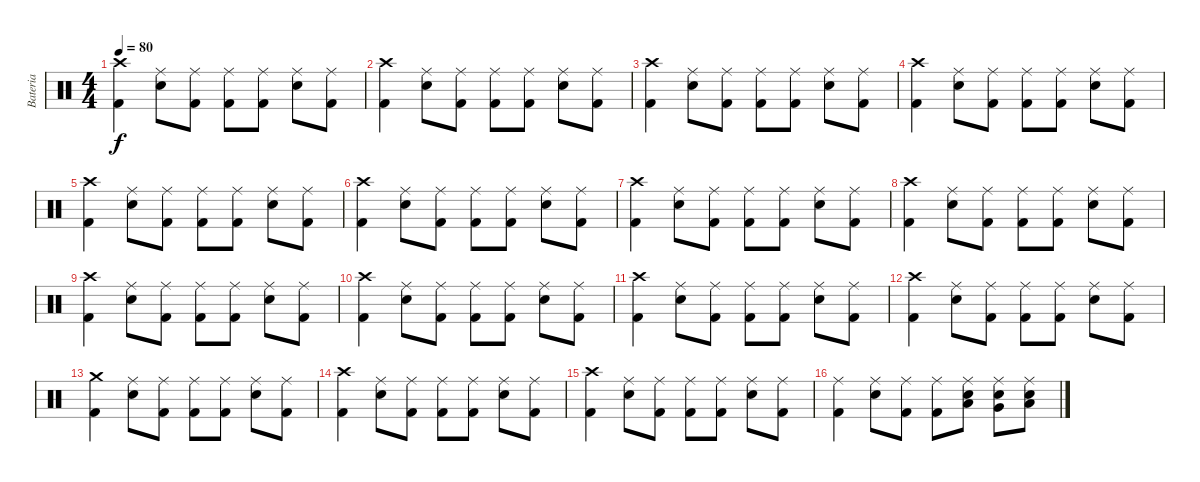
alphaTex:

\track ("Bateria" "Bateria") {instrument percussion}
\staff {score}
\articulation defaults
\ts (4 4)
\tempo 80
\clef neutral
\ks c
("Crash high (hit)" "Kick (hit) 2").4{dy f} ("Ride (middle)" "Snare (hit) 2").8 ("Ride (middle)" "Kick (hit) 2").8 ("Ride (middle)" "Kick (hit) 2").8 ("Ride (middle)" "Kick (hit) 2").8 ("Ride (middle)" "Snare (hit) 2").8 ("Ride (middle)" "Kick (hit) 2").8 |
("Crash high (hit)" "Kick (hit) 2").4 ("Ride (middle)" "Snare (hit) 2").8 ("Ride (middle)" "Kick (hit) 2").8 ("Ride (middle)" "Kick (hit) 2").8 ("Ride (middle)" "Kick (hit) 2").8 ("Ride (middle)" "Snare (hit) 2").8 ("Ride (middle)" "Kick (hit) 2").8 |
("Crash high (hit)" "Kick (hit) 2").4 ("Ride (middle)" "Snare (hit) 2").8 ("Ride (middle)" "Kick (hit) 2").8 ("Ride (middle)" "Kick (hit) 2").8 ("Ride (middle)" "Kick (hit) 2").8 ("Ride (middle)" "Snare (hit) 2").8 ("Ride (middle)" "Kick (hit) 2").8 |
("Crash high (hit)" "Kick (hit) 2").4 ("Ride (middle)" "Snare (hit) 2").8 ("Ride (middle)" "Kick (hit) 2").8 ("Ride (middle)" "Kick (hit) 2").8 ("Ride (middle)" "Kick (hit) 2").8 ("Ride (middle)" "Snare (hit) 2").8 ("Ride (middle)" "Kick (hit) 2").8 |
("Crash high (hit)" "Kick (hit) 2").4 ("Ride (middle)" "Snare (hit) 2").8 ("Ride (middle)" "Kick (hit) 2").8 ("Ride (middle)" "Kick (hit) 2").8 ("Ride (middle)" "Kick (hit) 2").8 ("Ride (middle)" "Snare (hit) 2").8 ("Ride (middle)" "Kick (hit) 2").8 |
("Crash high (hit)" "Kick (hit) 2").4 ("Ride (middle)" "Snare (hit) 2").8 ("Ride (middle)" "Kick (hit) 2").8 ("Ride (middle)" "Kick (hit) 2").8 ("Ride (middle)" "Kick (hit) 2").8 ("Ride (middle)" "Snare (hit) 2").8 ("Ride (middle)" "Kick (hit) 2").8 |
("Crash high (hit)" "Kick (hit) 2").4 ("Ride (middle)" "Snare (hit) 2").8 ("Ride (middle)" "Kick (hit) 2").8 ("Ride (middle)" "Kick (hit) 2").8 ("Ride (middle)" "Kick (hit) 2").8 ("Ride (middle)" "Snare (hit) 2").8 ("Ride (middle)" "Kick (hit) 2").8 |
("Crash high (hit)" "Kick (hit) 2").4 ("Ride (middle)" "Snare (hit) 2").8 ("Ride (middle)" "Kick (hit) 2").8 ("Ride (middle)" "Kick (hit) 2").8 ("Ride (middle)" "Kick (hit) 2").8 ("Ride (middle)" "Snare (hit) 2").8 ("Ride (middle)" "Kick (hit) 2").8 |
("Crash high (hit)" "Kick (hit) 2").4 ("Ride (middle)" "Snare (hit) 2").8 ("Ride (middle)" "Kick (hit) 2").8 ("Ride (middle)" "Kick (hit) 2").8 ("Ride (middle)" "Kick (hit) 2").8 ("Ride (middle)" "Snare (hit) 2").8 ("Ride (middle)" "Kick (hit) 2").8 |
("Crash high (hit)" "Kick (hit) 2").4 ("Ride (middle)" "Snare (hit) 2").8 ("Ride (middle)" "Kick (hit) 2").8 ("Ride (middle)" "Kick (hit) 2").8 ("Ride (middle)" "Kick (hit) 2").8 ("Ride (middle)" "Snare (hit) 2").8 ("Ride (middle)" "Kick (hit) 2").8 |
("Crash high (hit)" "Kick (hit) 2").4 ("Ride (middle)" "Snare (hit) 2").8 ("Ride (middle)" "Kick (hit) 2").8 ("Ride (middle)" "Kick (hit) 2").8 ("Ride (middle)" "Kick (hit) 2").8 ("Ride (middle)" "Snare (hit) 2").8 ("Ride (middle)" "Kick (hit) 2").8 |
("Crash high (hit)" "Kick (hit) 2").4 ("Ride (middle)" "Snare (hit) 2").8 ("Ride (middle)" "Kick (hit) 2").8 ("Ride (middle)" "Kick (hit) 2").8 ("Ride (middle)" "Kick (hit) 2").8 ("Ride (middle)" "Snare (hit) 2").8 ("Ride (middle)" "Kick (hit) 2").8 |
("Kick (hit) 2" "Crash medium (hit)").4 ("Ride (middle)" "Snare (hit) 2").8 ("Ride (middle)" "Kick (hit) 2").8 ("Ride (middle)" "Kick (hit) 2").8 ("Ride (middle)" "Kick (hit) 2").8 ("Ride (middle)" "Snare (hit) 2").8 ("Ride (middle)" "Kick (hit) 2").8 |
("Crash high (hit)" "Kick (hit) 2").4 ("Ride (middle)" "Snare (hit) 2").8 ("Ride (middle)" "Kick (hit) 2").8 ("Ride (middle)" "Kick (hit) 2").8 ("Ride (middle)" "Kick (hit) 2").8 ("Ride (middle)" "Snare (hit) 2").8 ("Ride (middle)" "Kick (hit) 2").8 |
("Crash high (hit)" "Kick (hit) 2").4 ("Ride (middle)" "Snare (hit) 2").8 ("Ride (middle)" "Kick (hit) 2").8 ("Ride (middle)" "Kick (hit) 2").8 ("Ride (middle)" "Kick (hit) 2").8 ("Ride (middle)" "Snare (hit) 2").8 ("Ride (middle)" "Kick (hit) 2").8 |
("Ride (middle)" "Kick (hit) 2").4 ("Ride (middle)" "Snare (hit) 2").8 ("Ride (middle)" "Kick (hit) 2").8 ("Ride (middle)" "Kick (hit) 2").8 ("Ride (middle)" "Snare (hit) 2" "Low Tom (hit)").8 ("Ride (middle)" "Snare (hit) 2" "Very Low Tom (hit)").8 ("Ride (middle)" "Snare (hit) 2" "Low Floor Tom (hit)").8
